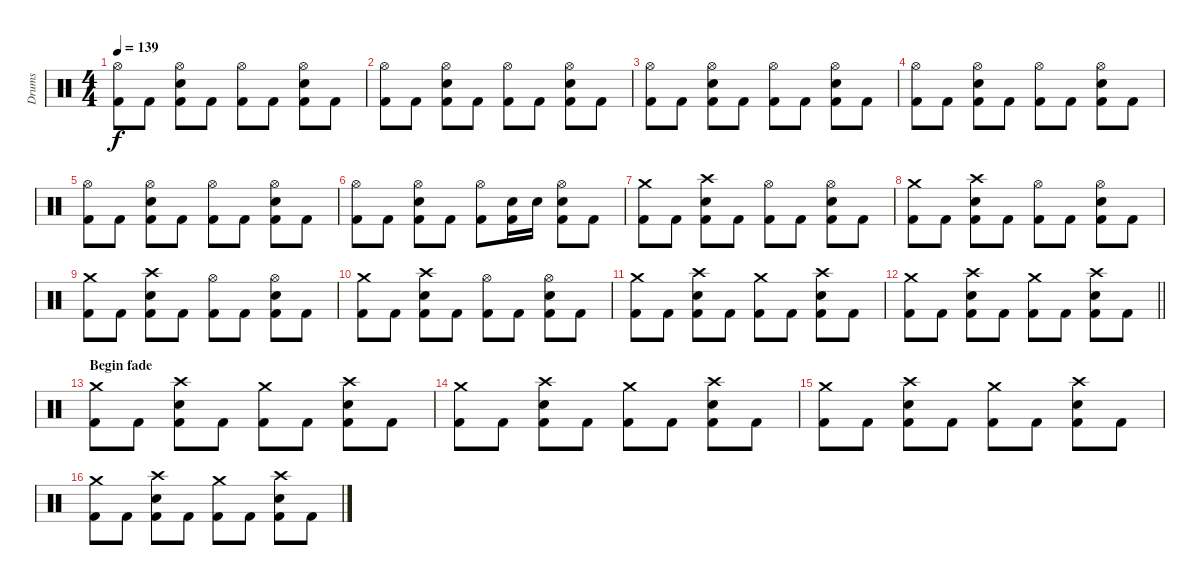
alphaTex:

\track ("Drums" "Drums") {instrument percussion}
\staff {score}
\articulation defaults
\ts (4 4)
\tempo 139
\clef neutral
\ks c
("Hi-Hat (open)" "Kick (hit) 2").8{dy f} "Kick (hit) 2".8 ("Hi-Hat (open)" "Electric Snare (hit)" "Kick (hit) 2").8 "Kick (hit) 2".8 ("Hi-Hat (open)" "Kick (hit) 2").8 "Kick (hit) 2".8 ("Hi-Hat (open)" "Electric Snare (hit)" "Kick (hit) 2").8 "Kick (hit) 2".8 |
("Hi-Hat (open)" "Kick (hit) 2").8 "Kick (hit) 2".8 ("Hi-Hat (open)" "Electric Snare (hit)" "Kick (hit) 2").8 "Kick (hit) 2".8 ("Hi-Hat (open)" "Kick (hit) 2").8 "Kick (hit) 2".8 ("Hi-Hat (open)" "Electric Snare (hit)" "Kick (hit) 2").8 "Kick (hit) 2".8 |
("Hi-Hat (open)" "Kick (hit) 2").8 "Kick (hit) 2".8 ("Hi-Hat (open)" "Electric Snare (hit)" "Kick (hit) 2").8 "Kick (hit) 2".8 ("Hi-Hat (open)" "Kick (hit) 2").8 "Kick (hit) 2".8 ("Hi-Hat (open)" "Electric Snare (hit)" "Kick (hit) 2").8 "Kick (hit) 2".8 |
("Hi-Hat (open)" "Kick (hit) 2").8 "Kick (hit) 2".8 ("Hi-Hat (open)" "Electric Snare (hit)" "Kick (hit) 2").8 "Kick (hit) 2".8 ("Hi-Hat (open)" "Kick (hit) 2").8 "Kick (hit) 2".8 ("Hi-Hat (open)" "Electric Snare (hit)" "Kick (hit) 2").8 "Kick (hit) 2".8 |
("Hi-Hat (open)" "Kick (hit) 2").8 "Kick (hit) 2".8 ("Hi-Hat (open)" "Electric Snare (hit)" "Kick (hit) 2").8 "Kick (hit) 2".8 ("Hi-Hat (open)" "Kick (hit) 2").8 "Kick (hit) 2".8 ("Hi-Hat (open)" "Electric Snare (hit)" "Kick (hit) 2").8 "Kick (hit) 2".8 |
("Hi-Hat (open)" "Kick (hit) 2").8 "Kick (hit) 2".8 ("Hi-Hat (open)" "Electric Snare (hit)" "Kick (hit) 2").8 "Kick (hit) 2".8 ("Hi-Hat (open)" "Kick (hit) 2").8 ("Electric Snare (hit)" "Kick (hit) 2").16 "Electric Snare (hit)".16 ("Hi-Hat (open)" "Electric Snare (hit)" "Kick (hit) 2").8 "Kick (hit) 2".8 |
("Crash medium (hit)" "Kick (hit) 2").8 "Kick (hit) 2".8 ("Crash high (hit)" "Electric Snare (hit)" "Kick (hit) 2").8 "Kick (hit) 2".8 ("Hi-Hat (open)" "Kick (hit) 2").8 "Kick (hit) 2".8 ("Hi-Hat (open)" "Electric Snare (hit)" "Kick (hit) 2").8 "Kick (hit) 2".8 |
("Crash medium (hit)" "Kick (hit) 2").8 "Kick (hit) 2".8 ("Crash high (hit)" "Electric Snare (hit)" "Kick (hit) 2").8 "Kick (hit) 2".8 ("Hi-Hat (open)" "Kick (hit) 2").8 "Kick (hit) 2".8 ("Hi-Hat (open)" "Electric Snare (hit)" "Kick (hit) 2").8 "Kick (hit) 2".8 |
("Crash medium (hit)" "Kick (hit) 2").8 "Kick (hit) 2".8 ("Crash high (hit)" "Electric Snare (hit)" "Kick (hit) 2").8 "Kick (hit) 2".8 ("Hi-Hat (open)" "Kick (hit) 2").8 "Kick (hit) 2".8 ("Hi-Hat (open)" "Electric Snare (hit)" "Kick (hit) 2").8 "Kick (hit) 2".8 |
("Crash medium (hit)" "Kick (hit) 2").8 "Kick (hit) 2".8 ("Crash high (hit)" "Electric Snare (hit)" "Kick (hit) 2").8 "Kick (hit) 2".8 ("Hi-Hat (open)" "Kick (hit) 2").8 "Kick (hit) 2".8 ("Hi-Hat (open)" "Electric Snare (hit)" "Kick (hit) 2").8 "Kick (hit) 2".8 |
("Crash medium (hit)" "Kick (hit) 2").8 "Kick (hit) 2".8 ("Crash high (hit)" "Electric Snare (hit)" "Kick (hit) 2").8 "Kick (hit) 2".8 ("Crash medium (hit)" "Kick (hit) 2").8 "Kick (hit) 2".8 ("Crash high (hit)" "Electric Snare (hit)" "Kick (hit) 2").8 "Kick (hit) 2".8 |
\barLineRight lightlight
("Crash medium (hit)" "Kick (hit) 2").8 "Kick (hit) 2".8 ("Crash high (hit)" "Electric Snare (hit)" "Kick (hit) 2").8 "Kick (hit) 2".8 ("Crash medium (hit)" "Kick (hit) 2").8 "Kick (hit) 2".8 ("Crash high (hit)" "Electric Snare (hit)" "Kick (hit) 2").8 "Kick (hit) 2".8 |
\section ("" "Begin fade")
("Crash medium (hit)" "Kick (hit) 2").8 "Kick (hit) 2".8 ("Crash high (hit)" "Electric Snare (hit)" "Kick (hit) 2").8 "Kick (hit) 2".8 ("Crash medium (hit)" "Kick (hit) 2").8 "Kick (hit) 2".8 ("Crash high (hit)" "Electric Snare (hit)" "Kick (hit) 2").8 "Kick (hit) 2".8 |
("Crash medium (hit)" "Kick (hit) 2").8 "Kick (hit) 2".8 ("Crash high (hit)" "Electric Snare (hit)" "Kick (hit) 2").8 "Kick (hit) 2".8 ("Crash medium (hit)" "Kick (hit) 2").8 "Kick (hit) 2".8 ("Crash high (hit)" "Electric Snare (hit)" "Kick (hit) 2").8 "Kick (hit) 2".8 |
("Crash medium (hit)" "Kick (hit) 2").8 "Kick (hit) 2".8 ("Crash high (hit)" "Electric Snare (hit)" "Kick (hit) 2").8 "Kick (hit) 2".8 ("Crash medium (hit)" "Kick (hit) 2").8 "Kick (hit) 2".8 ("Crash high (hit)" "Electric Snare (hit)" "Kick (hit) 2").8 "Kick (hit) 2".8 |
("Crash medium (hit)" "Kick (hit) 2").8 "Kick (hit) 2".8 ("Crash high (hit)" "Electric Snare (hit)" "Kick (hit) 2").8 "Kick (hit) 2".8 ("Crash medium (hit)" "Kick (hit) 2").8 "Kick (hit) 2".8 ("Crash high (hit)" "Electric Snare (hit)" "Kick (hit) 2").8 "Kick (hit) 2".8
